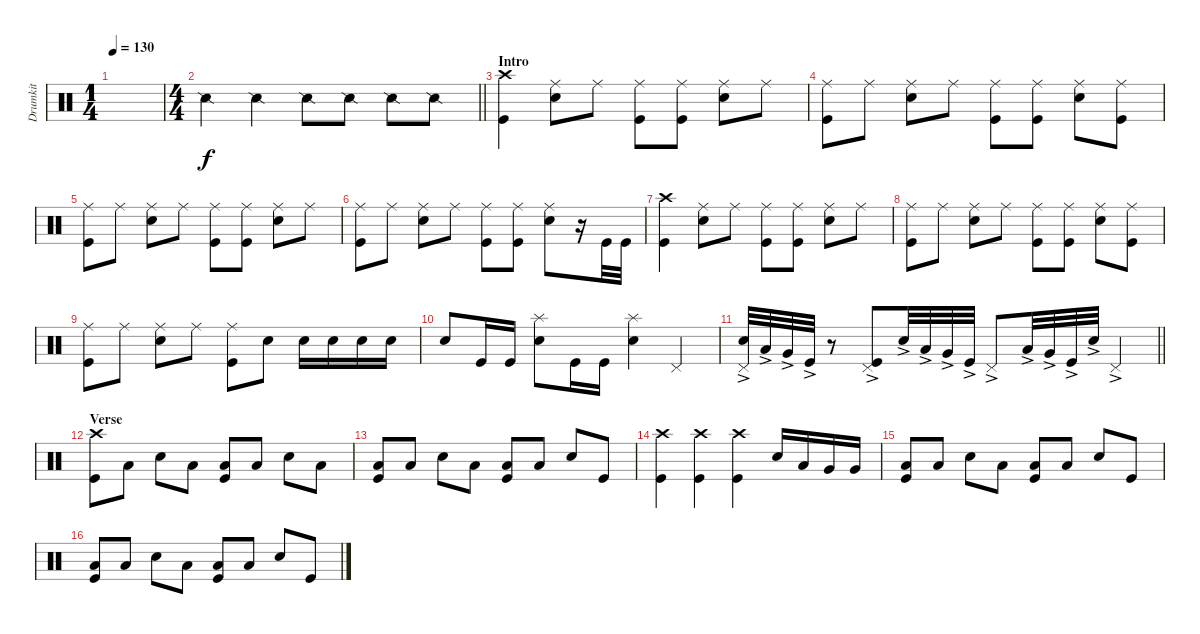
\track ("Drumkit" "Drumkit") {instrument percussion}
\staff {score}
\articulation defaults
\ts (1 4)
\tempo 130
\clef neutral
\ks c
|
\ts (4 4)
\barLineRight lightlight "Snare (side stick) 2".4 "Snare (side stick) 2".4 "Snare (side stick) 2".8 "Snare (side stick) 2".8 "Snare (side stick) 2".8 "Snare (side stick) 2".8
|
\section ("" "Intro")
("Crash high (hit)" "Kick (hit)").4 ("Ride (middle)" "Snare (hit) 2").8 "Ride (middle)".8 ("Ride (middle)" "Kick (hit)").8 ("Ride (middle)" "Kick (hit)").8 ("Ride (middle)" "Snare (hit) 2").8 "Ride (middle)".8 |
("Ride (middle)" "Kick (hit)").8 "Ride (middle)".8 ("Ride (middle)" "Snare (hit) 2").8 "Ride (middle)".8 ("Ride (middle)" "Kick (hit)").8 ("Ride (middle)" "Kick (hit)").8 ("Ride (middle)" "Snare (hit) 2").8 ("Ride (middle)" "Kick (hit)").8 |
("Ride (middle)" "Kick (hit)").8 "Ride (middle)".8 ("Ride (middle)" "Snare (hit) 2").8 "Ride (middle)".8 ("Ride (middle)" "Kick (hit)").8 ("Ride (middle)" "Kick (hit)").8 ("Ride (middle)" "Snare (hit) 2").8 "Ride (middle)".8 |
("Ride (middle)" "Kick (hit)").8 "Ride (middle)".8 ("Ride (middle)" "Snare (hit) 2").8 "Ride (middle)".8 ("Ride (middle)" "Kick (hit)").8 ("Ride (middle)" "Kick (hit)").8 ("Ride (middle)" "Snare (hit) 2").8 r.16 "Kick (hit)".32 "Kick (hit)".32 |
("Crash high (hit)" "Kick (hit)").4 ("Ride (middle)" "Snare (hit) 2").8 "Ride (middle)".8 ("Ride (middle)" "Kick (hit)").8 ("Ride (middle)" "Kick (hit)").8 ("Ride (middle)" "Snare (hit) 2").8 "Ride (middle)".8 |
("Ride (middle)" "Kick (hit)").8 "Ride (middle)".8 ("Ride (middle)" "Snare (hit) 2").8 "Ride (middle)".8 ("Ride (middle)" "Kick (hit)").8 ("Ride (middle)" "Kick (hit)").8 ("Ride (middle)" "Snare (hit) 2").8 ("Ride (middle)" "Kick (hit)").8 |
("Ride (middle)" "Kick (hit)").8 "Ride (middle)".8 ("Ride (middle)" "Snare (hit) 2").8 "Ride (middle)".8 ("Ride (middle)" "Kick (hit)").8 "Snare (hit) 2".8 "Snare (hit) 2".16 "Snare (hit) 2".16 "Snare (hit) 2".16 "Snare (hit) 2".16 |
"Snare (hit) 2".8 "Kick (hit)".16 "Kick (hit)".16 ("Snare (hit) 2" "Splash (hit)").8 "Kick (hit)".16 "Kick (hit)".16 ("Snare (hit) 2" "Splash (hit)").4 "Pedal Hi-Hat (hit)".4 |
\barLineRight lightlight
("Snare (hit) 2"{ac} "Pedal Hi-Hat (hit)"{ac}).32 "Low Tom (hit)"{ac}.32 "Very Low Tom (hit)"{ac}.32 "Kick (hit)"{ac}.32 r.8 ("Kick (hit)"{ac} "Pedal Hi-Hat (hit)"{ac}).8 "Snare (hit) 2"{ac}.32 "Low Tom (hit)"{ac}.32 "Very Low Tom (hit)"{ac}.32 "Kick (hit)"{ac}.32 "Pedal Hi-Hat (hit)"{ac}.8 "Low Floor Tom (hit)"{ac}.32 "Very Low Tom (hit)"{ac}.32 "Kick (hit)"{ac}.32 "Snare (hit) 2"{ac}.32 "Pedal Hi-Hat (hit)"{ac}.4 |
\section ("" "Verse")
("Crash high (hit)" "Kick (hit)").8 "Low Floor Tom (hit)".8 "Snare (hit) 2".8 "Low Floor Tom (hit)".8 ("Low Floor Tom (hit)" "Kick (hit)").8 "Low Floor Tom (hit)".8 "Snare (hit) 2".8 "Low Floor Tom (hit)".8 |
("Kick (hit)" "Low Floor Tom (hit)").8 "Low Floor Tom (hit)".8 "Snare (hit) 2".8 "Low Floor Tom (hit)".8 ("Low Floor Tom (hit)" "Kick (hit)").8 "Low Floor Tom (hit)".8 "Snare (hit) 2".8 "Kick (hit)".8 |
("Crash high (hit)" "Kick (hit)").4 ("Crash high (hit)" "Kick (hit)").4 ("Crash high (hit)" "Kick (hit)").4 "Snare (hit) 2".16 "Low Tom (hit)".16 "Very Low Tom (hit)".16 "Very Low Tom (hit)".16 |
("Kick (hit)" "Low Floor Tom (hit)").8 "Low Floor Tom (hit)".8 "Snare (hit) 2".8 "Low Floor Tom (hit)".8 ("Low Floor Tom (hit)" "Kick (hit)").8 "Low Floor Tom (hit)".8 "Snare (hit) 2".8 "Kick (hit)".8 |
("Kick (hit)" "Low Floor Tom (hit)").8 "Low Floor Tom (hit)".8 "Snare (hit) 2".8 "Low Floor Tom (hit)".8 ("Low Floor Tom (hit)" "Kick (hit)").8 "Low Floor Tom (hit)".8 "Snare (hit) 2".8 "Kick (hit)".8
